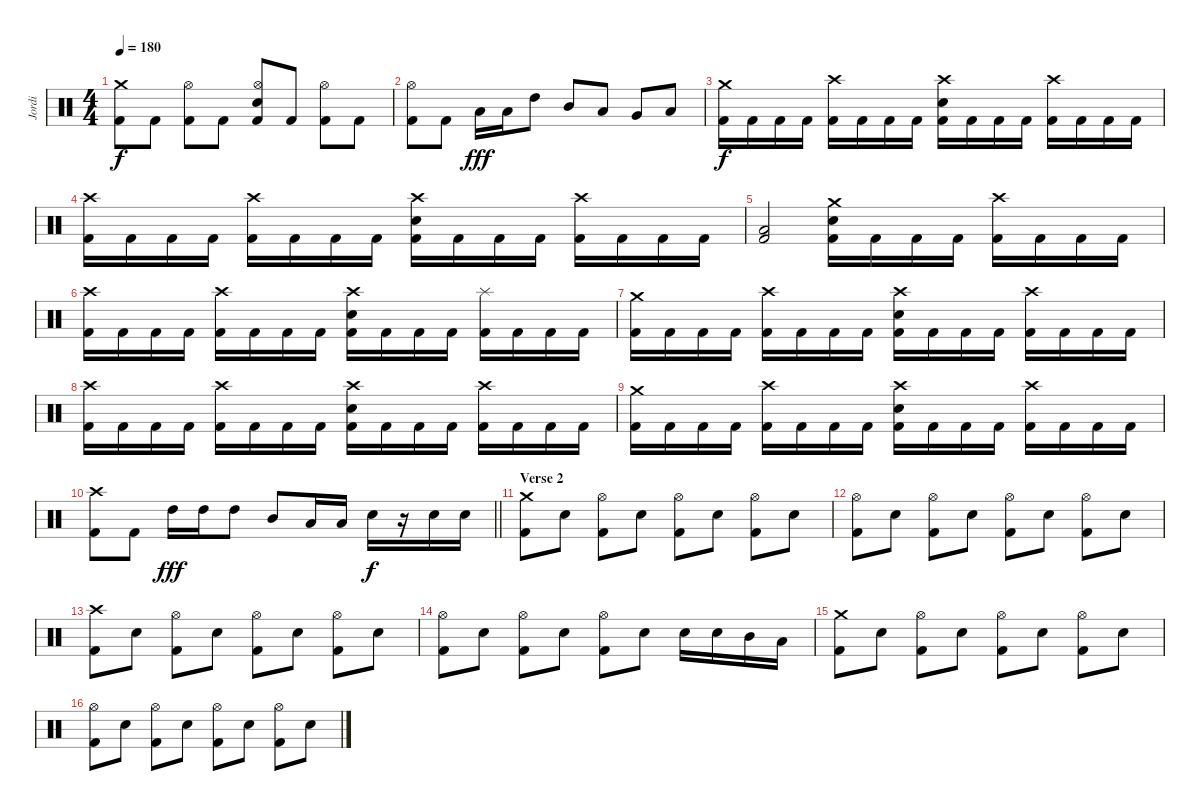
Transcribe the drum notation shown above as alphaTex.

\track ("Jordi" "Jordi") {instrument percussion}
\staff {score}
\articulation defaults
\ts (4 4)
\tempo 180
\clef neutral
\ks c
("Crash medium (hit)" "Kick (hit) 2").8{dy f} "Kick (hit) 2".8 ("Hi-Hat (open)" "Kick (hit) 2").8 "Kick (hit) 2".8 ("Hi-Hat (open)" "Snare (hit) 2" "Kick (hit) 2").8 "Kick (hit) 2".8 ("Hi-Hat (open)" "Kick (hit) 2").8 "Kick (hit) 2".8 |
("Hi-Hat (open)" "Kick (hit) 2").8 "Kick (hit) 2".8 "Low Tom (hit)".16{dy fff} "Low Tom (hit)".16 "High Tom (hit)".8 "Mid Tom (hit)".8 "Low Tom (hit)".8 "Very Low Tom (hit)".8 "Low Floor Tom (hit)".8 |
("Crash medium (hit)" "Kick (hit) 2").16{dy f} "Kick (hit) 2".16 "Kick (hit) 2".16 "Kick (hit) 2".16 ("Crash high (hit)" "Kick (hit) 2").16 "Kick (hit) 2".16 "Kick (hit) 2".16 "Kick (hit) 2".16 ("Crash high (hit)" "Snare (hit) 2" "Kick (hit) 2").16 "Kick (hit) 2".16 "Kick (hit) 2".16 "Kick (hit) 2".16 ("Crash high (hit)" "Kick (hit) 2").16 "Kick (hit) 2".16 "Kick (hit) 2".16 "Kick (hit) 2".16 |
("Crash high (hit)" "Kick (hit) 2").16 "Kick (hit) 2".16 "Kick (hit) 2".16 "Kick (hit) 2".16 ("Crash high (hit)" "Kick (hit) 2").16 "Kick (hit) 2".16 "Kick (hit) 2".16 "Kick (hit) 2".16 ("Crash high (hit)" "Snare (hit) 2" "Kick (hit) 2").16 "Kick (hit) 2".16 "Kick (hit) 2".16 "Kick (hit) 2".16 ("Crash high (hit)" "Kick (hit) 2").16 "Kick (hit) 2".16 "Kick (hit) 2".16 "Kick (hit) 2".16 |
("Low Tom (hit)" "Kick (hit) 2").2 ("Crash medium (hit)" "Snare (hit) 2" "Kick (hit) 2").16 "Kick (hit) 2".16 "Kick (hit) 2".16 "Kick (hit) 2".16 ("Crash high (hit)" "Kick (hit) 2").16 "Kick (hit) 2".16 "Kick (hit) 2".16 "Kick (hit) 2".16 |
("Crash high (hit)" "Kick (hit) 2").16 "Kick (hit) 2".16 "Kick (hit) 2".16 "Kick (hit) 2".16 ("Crash high (hit)" "Kick (hit) 2").16 "Kick (hit) 2".16 "Kick (hit) 2".16 "Kick (hit) 2".16 ("Crash high (hit)" "Snare (hit) 2" "Kick (hit) 2").16 "Kick (hit) 2".16 "Kick (hit) 2".16 "Kick (hit) 2".16 ("Splash (hit)" "Kick (hit) 2").16 "Kick (hit) 2".16 "Kick (hit) 2".16 "Kick (hit) 2".16 |
("Crash medium (hit)" "Kick (hit) 2").16 "Kick (hit) 2".16 "Kick (hit) 2".16 "Kick (hit) 2".16 ("Crash high (hit)" "Kick (hit) 2").16 "Kick (hit) 2".16 "Kick (hit) 2".16 "Kick (hit) 2".16 ("Crash high (hit)" "Snare (hit) 2" "Kick (hit) 2").16 "Kick (hit) 2".16 "Kick (hit) 2".16 "Kick (hit) 2".16 ("Crash high (hit)" "Kick (hit) 2").16 "Kick (hit) 2".16 "Kick (hit) 2".16 "Kick (hit) 2".16 |
("Crash high (hit)" "Kick (hit) 2").16 "Kick (hit) 2".16 "Kick (hit) 2".16 "Kick (hit) 2".16 ("Crash high (hit)" "Kick (hit) 2").16 "Kick (hit) 2".16 "Kick (hit) 2".16 "Kick (hit) 2".16 ("Crash high (hit)" "Snare (hit) 2" "Kick (hit) 2").16 "Kick (hit) 2".16 "Kick (hit) 2".16 "Kick (hit) 2".16 ("Crash high (hit)" "Kick (hit) 2").16 "Kick (hit) 2".16 "Kick (hit) 2".16 "Kick (hit) 2".16 |
("Crash medium (hit)" "Kick (hit) 2").16 "Kick (hit) 2".16 "Kick (hit) 2".16 "Kick (hit) 2".16 ("Crash high (hit)" "Kick (hit) 2").16 "Kick (hit) 2".16 "Kick (hit) 2".16 "Kick (hit) 2".16 ("Crash high (hit)" "Snare (hit) 2" "Kick (hit) 2").16 "Kick (hit) 2".16 "Kick (hit) 2".16 "Kick (hit) 2".16 ("Crash high (hit)" "Kick (hit) 2").16 "Kick (hit) 2".16 "Kick (hit) 2".16 "Kick (hit) 2".16 |
\barLineRight lightlight
("Crash high (hit)" "Kick (hit) 2").8 "Kick (hit) 2".8 "High Tom (hit)".16{dy fff} "High Tom (hit)".16 "High Tom (hit)".8 "Mid Tom (hit)".8 "Low Tom (hit)".16 "Low Tom (hit)".16 "Snare (hit) 2".16{dy f} r.16 "Snare (hit) 2".16 "Snare (hit) 2".16 |
\section ("" "Verse 2")
("Crash medium (hit)" "Kick (hit) 2").8 "Snare (hit) 2".8 ("Hi-Hat (open)" "Kick (hit) 2").8 "Snare (hit) 2".8 ("Hi-Hat (open)" "Kick (hit) 2").8 "Snare (hit) 2".8 ("Hi-Hat (open)" "Kick (hit) 2").8 "Snare (hit) 2".8 |
("Hi-Hat (open)" "Kick (hit) 2").8 "Snare (hit) 2".8 ("Hi-Hat (open)" "Kick (hit) 2").8 "Snare (hit) 2".8 ("Hi-Hat (open)" "Kick (hit) 2").8 "Snare (hit) 2".8 ("Hi-Hat (open)" "Kick (hit) 2").8 "Snare (hit) 2".8 |
("Crash high (hit)" "Kick (hit) 2").8 "Snare (hit) 2".8 ("Hi-Hat (open)" "Kick (hit) 2").8 "Snare (hit) 2".8 ("Hi-Hat (open)" "Kick (hit) 2").8 "Snare (hit) 2".8 ("Hi-Hat (open)" "Kick (hit) 2").8 "Snare (hit) 2".8 |
("Hi-Hat (open)" "Kick (hit) 2").8 "Snare (hit) 2".8 ("Hi-Hat (open)" "Kick (hit) 2").8 "Snare (hit) 2".8 ("Hi-Hat (open)" "Kick (hit) 2").8 "Snare (hit) 2".8 "Snare (hit) 2".16 "Snare (hit) 2".16 "Mid Tom (hit)".16 "Low Tom (hit)".16 |
("Crash medium (hit)" "Kick (hit) 2").8 "Snare (hit) 2".8 ("Hi-Hat (open)" "Kick (hit) 2").8 "Snare (hit) 2".8 ("Hi-Hat (open)" "Kick (hit) 2").8 "Snare (hit) 2".8 ("Hi-Hat (open)" "Kick (hit) 2").8 "Snare (hit) 2".8 |
("Hi-Hat (open)" "Kick (hit) 2").8 "Snare (hit) 2".8 ("Hi-Hat (open)" "Kick (hit) 2").8 "Snare (hit) 2".8 ("Hi-Hat (open)" "Kick (hit) 2").8 "Snare (hit) 2".8 ("Hi-Hat (open)" "Kick (hit) 2").8 "Snare (hit) 2".8
